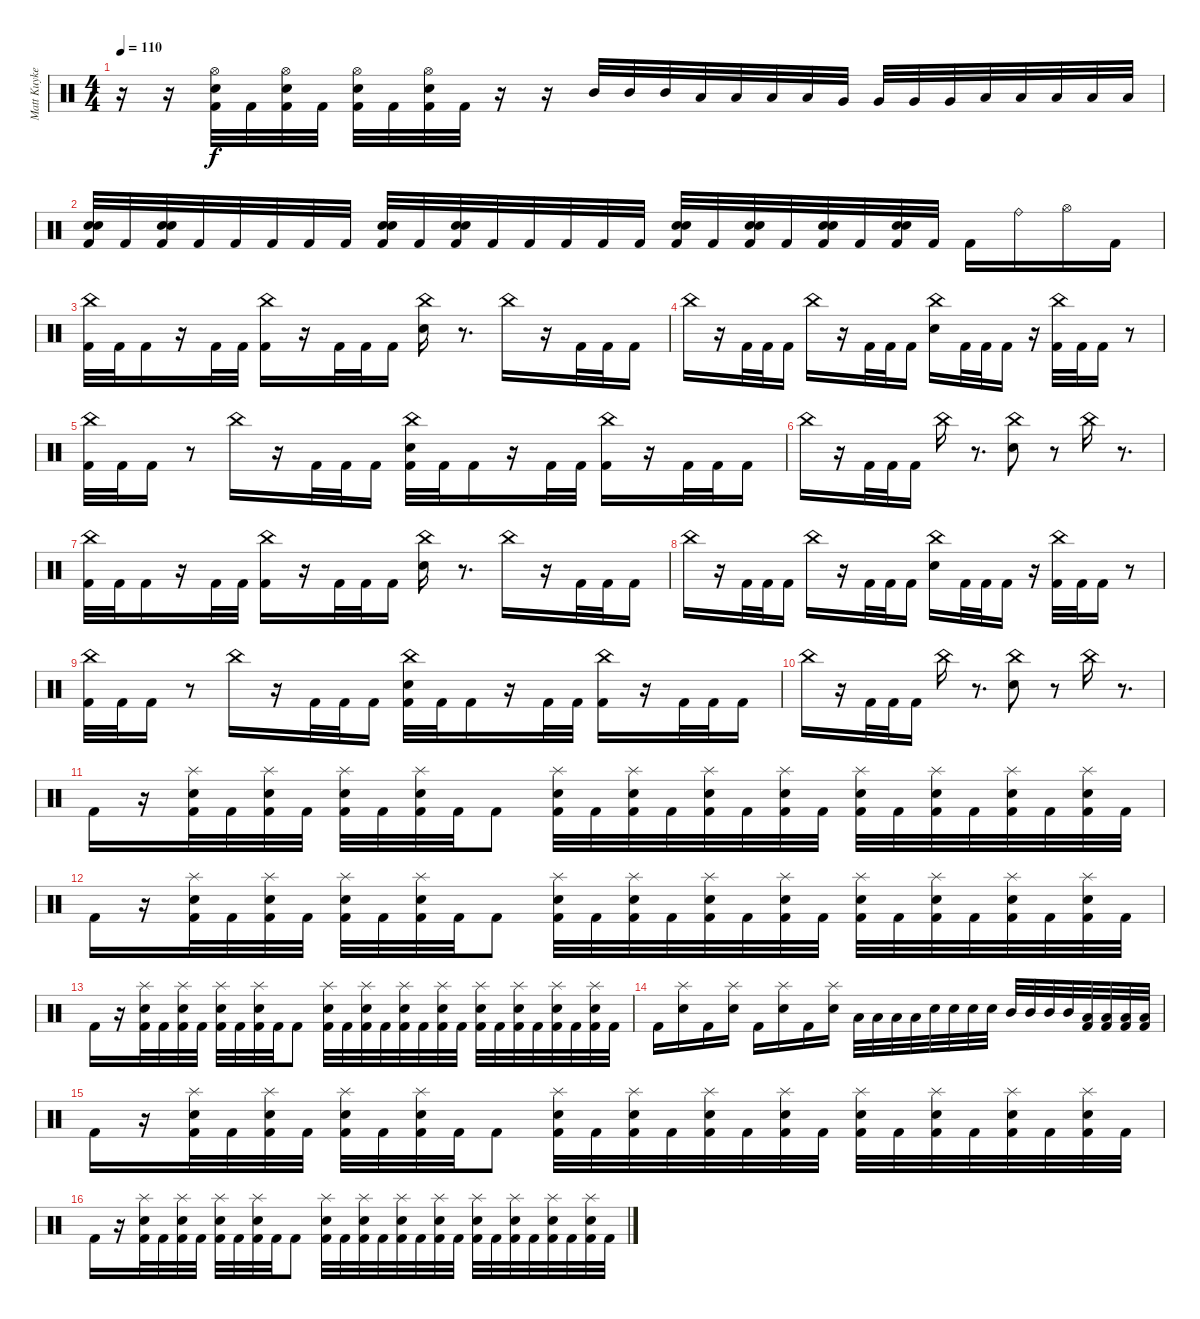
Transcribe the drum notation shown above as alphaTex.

\track ("Matt Kuykendall (Drums)" "Matt Kuyke") {instrument percussion}
\staff {score}
\articulation defaults
\ts (4 4)
\tempo 110
\clef neutral
\ks c
r.16{dy f} r.16 ("Hi-Hat (open)" "Snare (hit) 2" "Kick (hit) 2").32 "Kick (hit) 2".32 ("Hi-Hat (open)" "Snare (hit) 2" "Kick (hit) 2").32 "Kick (hit) 2".32 ("Hi-Hat (open)" "Snare (hit) 2" "Kick (hit) 2").32 "Kick (hit) 2".32 ("Hi-Hat (open)" "Snare (hit) 2" "Kick (hit) 2").32 "Kick (hit) 2".32 r.16 r.16 "Mid Tom (hit)".32 "Mid Tom (hit)".32 "Mid Tom (hit)".32 "Low Tom (hit)".32 "Low Tom (hit)".32 "Low Tom (hit)".32 "Low Tom (hit)".32 "Very Low Tom (hit)".32 "Very Low Tom (hit)".32 "Very Low Tom (hit)".32 "Very Low Tom (hit)".32 "Low Floor Tom (hit)".32 "Low Floor Tom (hit)".32 "Low Floor Tom (hit)".32 "Low Floor Tom (hit)".32 "Low Floor Tom (hit)".32 |
("Electric Snare (hit)" "Snare (hit) 2" "Kick (hit) 2").32 "Kick (hit) 2".32 ("Electric Snare (hit)" "Snare (hit) 2" "Kick (hit) 2").32 "Kick (hit) 2".32 "Kick (hit) 2".32 "Kick (hit) 2".32 "Kick (hit) 2".32 "Kick (hit) 2".32 ("Electric Snare (hit)" "Snare (hit) 2" "Kick (hit) 2").32 "Kick (hit) 2".32 ("Electric Snare (hit)" "Snare (hit) 2" "Kick (hit) 2").32 "Kick (hit) 2".32 "Kick (hit) 2".32 "Kick (hit) 2".32 "Kick (hit) 2".32 "Kick (hit) 2".32 ("Electric Snare (hit)" "Snare (hit) 2" "Kick (hit) 2").32 "Kick (hit) 2".32 ("Electric Snare (hit)" "Snare (hit) 2" "Kick (hit) 2").32 "Kick (hit) 2".32 ("Electric Snare (hit)" "Snare (hit) 2" "Kick (hit) 2").32 "Kick (hit) 2".32 ("Electric Snare (hit)" "Snare (hit) 2" "Kick (hit) 2").32 "Kick (hit) 2".32 "Kick (hit) 2".16 "Ride (bell)".16 "Hi-Hat (open)".16 "Kick (hit) 2".16 |
("China (hit)" "Kick (hit) 2").32 "Kick (hit) 2".32 "Kick (hit) 2".16 r.16 "Kick (hit) 2".32 "Kick (hit) 2".32 ("China (hit)" "Kick (hit) 2").16 r.16 "Kick (hit) 2".32 "Kick (hit) 2".32 "Kick (hit) 2".16 ("China (hit)" "Snare (hit) 2").16 r.8{d} "China (hit)".16 r.16 "Kick (hit) 2".32 "Kick (hit) 2".32 "Kick (hit) 2".16 |
"China (hit)".16 r.16 "Kick (hit) 2".32 "Kick (hit) 2".32 "Kick (hit) 2".16 "China (hit)".16 r.16 "Kick (hit) 2".32 "Kick (hit) 2".32 "Kick (hit) 2".16 ("China (hit)" "Snare (hit) 2").16 "Kick (hit) 2".32 "Kick (hit) 2".32 "Kick (hit) 2".16 r.16 ("China (hit)" "Kick (hit) 2").32 "Kick (hit) 2".32 "Kick (hit) 2".16 r.8 |
("China (hit)" "Kick (hit) 2").32 "Kick (hit) 2".32 "Kick (hit) 2".16 r.8 "China (hit)".16 r.16 "Kick (hit) 2".32 "Kick (hit) 2".32 "Kick (hit) 2".16 ("China (hit)" "Snare (hit) 2" "Kick (hit) 2").32 "Kick (hit) 2".32 "Kick (hit) 2".16 r.16 "Kick (hit) 2".32 "Kick (hit) 2".32 ("China (hit)" "Kick (hit) 2").16 r.16 "Kick (hit) 2".32 "Kick (hit) 2".32 "Kick (hit) 2".16 |
"China (hit)".16 r.16 "Kick (hit) 2".32 "Kick (hit) 2".32 "Kick (hit) 2".16 "China (hit)".16 r.8{d} ("China (hit)" "Snare (hit) 2").8 r.8 "China (hit)".16 r.8{d} |
("China (hit)" "Kick (hit) 2").32 "Kick (hit) 2".32 "Kick (hit) 2".16 r.16 "Kick (hit) 2".32 "Kick (hit) 2".32 ("China (hit)" "Kick (hit) 2").16 r.16 "Kick (hit) 2".32 "Kick (hit) 2".32 "Kick (hit) 2".16 ("China (hit)" "Snare (hit) 2").16 r.8{d} "China (hit)".16 r.16 "Kick (hit) 2".32 "Kick (hit) 2".32 "Kick (hit) 2".16 |
"China (hit)".16 r.16 "Kick (hit) 2".32 "Kick (hit) 2".32 "Kick (hit) 2".16 "China (hit)".16 r.16 "Kick (hit) 2".32 "Kick (hit) 2".32 "Kick (hit) 2".16 ("China (hit)" "Snare (hit) 2").16 "Kick (hit) 2".32 "Kick (hit) 2".32 "Kick (hit) 2".16 r.16 ("China (hit)" "Kick (hit) 2").32 "Kick (hit) 2".32 "Kick (hit) 2".16 r.8 |
("China (hit)" "Kick (hit) 2").32 "Kick (hit) 2".32 "Kick (hit) 2".16 r.8 "China (hit)".16 r.16 "Kick (hit) 2".32 "Kick (hit) 2".32 "Kick (hit) 2".16 ("China (hit)" "Snare (hit) 2" "Kick (hit) 2").32 "Kick (hit) 2".32 "Kick (hit) 2".16 r.16 "Kick (hit) 2".32 "Kick (hit) 2".32 ("China (hit)" "Kick (hit) 2").16 r.16 "Kick (hit) 2".32 "Kick (hit) 2".32 "Kick (hit) 2".16 |
"China (hit)".16 r.16 "Kick (hit) 2".32 "Kick (hit) 2".32 "Kick (hit) 2".16 "China (hit)".16 r.8{d} ("China (hit)" "Snare (hit) 2").8 r.8 "China (hit)".16 r.8{d} |
"Kick (hit) 2".16 r.16 ("Splash (hit)" "Snare (hit) 2" "Kick (hit) 2").32 "Kick (hit) 2".32 ("Splash (hit)" "Snare (hit) 2" "Kick (hit) 2").32 "Kick (hit) 2".32 ("Splash (hit)" "Snare (hit) 2" "Kick (hit) 2").32 "Kick (hit) 2".32 ("Splash (hit)" "Snare (hit) 2" "Kick (hit) 2").32 "Kick (hit) 2".32 "Kick (hit) 2".8 ("Splash (hit)" "Snare (hit) 2" "Kick (hit) 2").32 "Kick (hit) 2".32 ("Splash (hit)" "Snare (hit) 2" "Kick (hit) 2").32 "Kick (hit) 2".32 ("Splash (hit)" "Snare (hit) 2" "Kick (hit) 2").32 "Kick (hit) 2".32 ("Splash (hit)" "Snare (hit) 2" "Kick (hit) 2").32 "Kick (hit) 2".32 ("Splash (hit)" "Snare (hit) 2" "Kick (hit) 2").32 "Kick (hit) 2".32 ("Splash (hit)" "Snare (hit) 2" "Kick (hit) 2").32 "Kick (hit) 2".32 ("Splash (hit)" "Snare (hit) 2" "Kick (hit) 2").32 "Kick (hit) 2".32 ("Splash (hit)" "Snare (hit) 2" "Kick (hit) 2").32 "Kick (hit) 2".32 |
"Kick (hit) 2".16 r.16 ("Splash (hit)" "Snare (hit) 2" "Kick (hit) 2").32 "Kick (hit) 2".32 ("Splash (hit)" "Snare (hit) 2" "Kick (hit) 2").32 "Kick (hit) 2".32 ("Splash (hit)" "Snare (hit) 2" "Kick (hit) 2").32 "Kick (hit) 2".32 ("Splash (hit)" "Snare (hit) 2" "Kick (hit) 2").32 "Kick (hit) 2".32 "Kick (hit) 2".8 ("Splash (hit)" "Snare (hit) 2" "Kick (hit) 2").32 "Kick (hit) 2".32 ("Splash (hit)" "Snare (hit) 2" "Kick (hit) 2").32 "Kick (hit) 2".32 ("Splash (hit)" "Snare (hit) 2" "Kick (hit) 2").32 "Kick (hit) 2".32 ("Splash (hit)" "Snare (hit) 2" "Kick (hit) 2").32 "Kick (hit) 2".32 ("Splash (hit)" "Snare (hit) 2" "Kick (hit) 2").32 "Kick (hit) 2".32 ("Splash (hit)" "Snare (hit) 2" "Kick (hit) 2").32 "Kick (hit) 2".32 ("Splash (hit)" "Snare (hit) 2" "Kick (hit) 2").32 "Kick (hit) 2".32 ("Splash (hit)" "Snare (hit) 2" "Kick (hit) 2").32 "Kick (hit) 2".32 |
"Kick (hit) 2".16 r.16 ("Splash (hit)" "Snare (hit) 2" "Kick (hit) 2").32 "Kick (hit) 2".32 ("Splash (hit)" "Snare (hit) 2" "Kick (hit) 2").32 "Kick (hit) 2".32 ("Splash (hit)" "Snare (hit) 2" "Kick (hit) 2").32 "Kick (hit) 2".32 ("Splash (hit)" "Snare (hit) 2" "Kick (hit) 2").32 "Kick (hit) 2".32 "Kick (hit) 2".8 ("Splash (hit)" "Snare (hit) 2" "Kick (hit) 2").32 "Kick (hit) 2".32 ("Splash (hit)" "Snare (hit) 2" "Kick (hit) 2").32 "Kick (hit) 2".32 ("Splash (hit)" "Snare (hit) 2" "Kick (hit) 2").32 "Kick (hit) 2".32 ("Splash (hit)" "Snare (hit) 2" "Kick (hit) 2").32 "Kick (hit) 2".32 ("Splash (hit)" "Snare (hit) 2" "Kick (hit) 2").32 "Kick (hit) 2".32 ("Splash (hit)" "Snare (hit) 2" "Kick (hit) 2").32 "Kick (hit) 2".32 ("Splash (hit)" "Snare (hit) 2" "Kick (hit) 2").32 "Kick (hit) 2".32 ("Splash (hit)" "Snare (hit) 2" "Kick (hit) 2").32 "Kick (hit) 2".32 |
"Kick (hit) 2".16 ("Splash (hit)" "Snare (hit) 2").16 "Kick (hit) 2".16 ("Splash (hit)" "Snare (hit) 2").16 "Kick (hit) 2".16 ("Splash (hit)" "Snare (hit) 2").16 "Kick (hit) 2".16 ("Splash (hit)" "Snare (hit) 2").16 "Low Floor Tom (hit)".32 "Low Floor Tom (hit)".32 "Low Floor Tom (hit)".32 "Low Floor Tom (hit)".32 "Snare (hit) 2".32 "Snare (hit) 2".32 "Snare (hit) 2".32 "Snare (hit) 2".32 "Mid Tom (hit)".32 "Mid Tom (hit)".32 "Mid Tom (hit)".32 "Mid Tom (hit)".32 ("Low Floor Tom (hit)" "Kick (hit) 2").32 ("Low Floor Tom (hit)" "Kick (hit) 2").32 ("Low Floor Tom (hit)" "Kick (hit) 2").32 ("Low Floor Tom (hit)" "Kick (hit) 2").32 |
"Kick (hit) 2".16 r.16 ("Splash (hit)" "Snare (hit) 2" "Kick (hit) 2").32 "Kick (hit) 2".32 ("Splash (hit)" "Snare (hit) 2" "Kick (hit) 2").32 "Kick (hit) 2".32 ("Splash (hit)" "Snare (hit) 2" "Kick (hit) 2").32 "Kick (hit) 2".32 ("Splash (hit)" "Snare (hit) 2" "Kick (hit) 2").32 "Kick (hit) 2".32 "Kick (hit) 2".8 ("Splash (hit)" "Snare (hit) 2" "Kick (hit) 2").32 "Kick (hit) 2".32 ("Splash (hit)" "Snare (hit) 2" "Kick (hit) 2").32 "Kick (hit) 2".32 ("Splash (hit)" "Snare (hit) 2" "Kick (hit) 2").32 "Kick (hit) 2".32 ("Splash (hit)" "Snare (hit) 2" "Kick (hit) 2").32 "Kick (hit) 2".32 ("Splash (hit)" "Snare (hit) 2" "Kick (hit) 2").32 "Kick (hit) 2".32 ("Splash (hit)" "Snare (hit) 2" "Kick (hit) 2").32 "Kick (hit) 2".32 ("Splash (hit)" "Snare (hit) 2" "Kick (hit) 2").32 "Kick (hit) 2".32 ("Splash (hit)" "Snare (hit) 2" "Kick (hit) 2").32 "Kick (hit) 2".32 |
"Kick (hit) 2".16 r.16 ("Splash (hit)" "Snare (hit) 2" "Kick (hit) 2").32 "Kick (hit) 2".32 ("Splash (hit)" "Snare (hit) 2" "Kick (hit) 2").32 "Kick (hit) 2".32 ("Splash (hit)" "Snare (hit) 2" "Kick (hit) 2").32 "Kick (hit) 2".32 ("Splash (hit)" "Snare (hit) 2" "Kick (hit) 2").32 "Kick (hit) 2".32 "Kick (hit) 2".8 ("Splash (hit)" "Snare (hit) 2" "Kick (hit) 2").32 "Kick (hit) 2".32 ("Splash (hit)" "Snare (hit) 2" "Kick (hit) 2").32 "Kick (hit) 2".32 ("Splash (hit)" "Snare (hit) 2" "Kick (hit) 2").32 "Kick (hit) 2".32 ("Splash (hit)" "Snare (hit) 2" "Kick (hit) 2").32 "Kick (hit) 2".32 ("Splash (hit)" "Snare (hit) 2" "Kick (hit) 2").32 "Kick (hit) 2".32 ("Splash (hit)" "Snare (hit) 2" "Kick (hit) 2").32 "Kick (hit) 2".32 ("Splash (hit)" "Snare (hit) 2" "Kick (hit) 2").32 "Kick (hit) 2".32 ("Splash (hit)" "Snare (hit) 2" "Kick (hit) 2").32 "Kick (hit) 2".32
